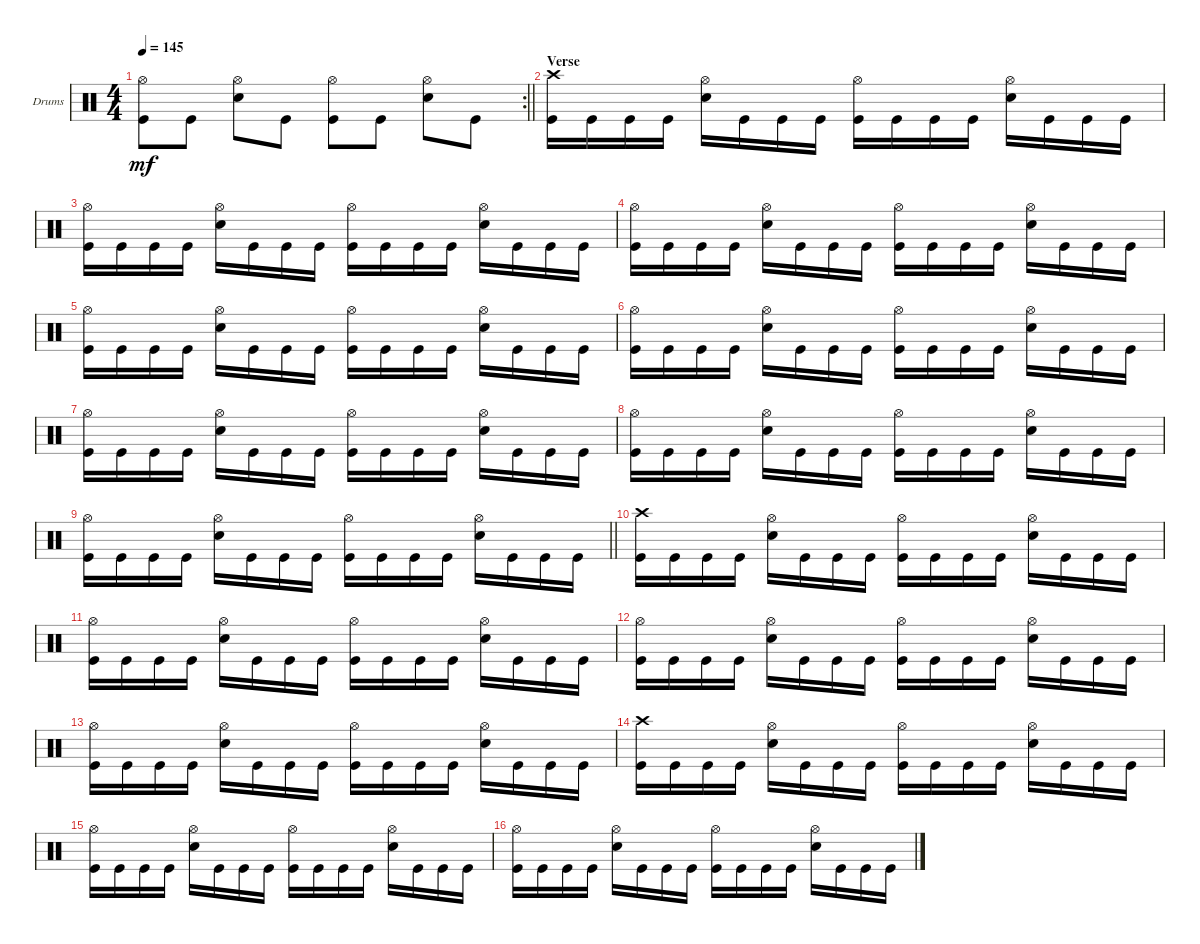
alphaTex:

\defaultSystemsLayout 4
\bracketExtendMode groupsimilarinstruments
\firstSystemTrackNameOrientation horizontal
\otherSystemsTrackNameOrientation horizontal
\track ("Drumkit" "Drums") {instrument percussion}
\staff {score}
\articulation defaults
\rc 2
\ts (4 4)
\tempo 145
\clef neutral
\barLineRight lightlight
\ks c
("Kick (hit)" "Hi-Hat (open)").8{dy mf} "Kick (hit)".8 ("Snare (hit) 2" "Hi-Hat (open)").8 "Kick (hit)".8 ("Kick (hit)" "Hi-Hat (open)").8 "Kick (hit)".8 ("Snare (hit) 2" "Hi-Hat (open)").8 "Kick (hit)".8 |
\section ("" "Verse")
("Kick (hit)" "Crash high (hit)").16 "Kick (hit)".16 "Kick (hit)".16 "Kick (hit)".16 ("Snare (hit) 2" "Hi-Hat (open)").16 "Kick (hit)".16 "Kick (hit)".16 "Kick (hit)".16 ("Kick (hit)" "Hi-Hat (open)").16 "Kick (hit)".16 "Kick (hit)".16 "Kick (hit)".16 ("Snare (hit) 2" "Hi-Hat (open)").16 "Kick (hit)".16 "Kick (hit)".16 "Kick (hit)".16 |
("Kick (hit)" "Hi-Hat (open)").16 "Kick (hit)".16 "Kick (hit)".16 "Kick (hit)".16 ("Snare (hit) 2" "Hi-Hat (open)").16 "Kick (hit)".16 "Kick (hit)".16 "Kick (hit)".16 ("Kick (hit)" "Hi-Hat (open)").16 "Kick (hit)".16 "Kick (hit)".16 "Kick (hit)".16 ("Snare (hit) 2" "Hi-Hat (open)").16 "Kick (hit)".16 "Kick (hit)".16 "Kick (hit)".16 |
("Kick (hit)" "Hi-Hat (open)").16 "Kick (hit)".16 "Kick (hit)".16 "Kick (hit)".16 ("Snare (hit) 2" "Hi-Hat (open)").16 "Kick (hit)".16 "Kick (hit)".16 "Kick (hit)".16 ("Kick (hit)" "Hi-Hat (open)").16 "Kick (hit)".16 "Kick (hit)".16 "Kick (hit)".16 ("Snare (hit) 2" "Hi-Hat (open)").16 "Kick (hit)".16 "Kick (hit)".16 "Kick (hit)".16 |
("Kick (hit)" "Hi-Hat (open)").16 "Kick (hit)".16 "Kick (hit)".16 "Kick (hit)".16 ("Snare (hit) 2" "Hi-Hat (open)").16 "Kick (hit)".16 "Kick (hit)".16 "Kick (hit)".16 ("Kick (hit)" "Hi-Hat (open)").16 "Kick (hit)".16 "Kick (hit)".16 "Kick (hit)".16 ("Snare (hit) 2" "Hi-Hat (open)").16 "Kick (hit)".16 "Kick (hit)".16 "Kick (hit)".16 |
("Kick (hit)" "Hi-Hat (open)").16 "Kick (hit)".16 "Kick (hit)".16 "Kick (hit)".16 ("Snare (hit) 2" "Hi-Hat (open)").16 "Kick (hit)".16 "Kick (hit)".16 "Kick (hit)".16 ("Kick (hit)" "Hi-Hat (open)").16 "Kick (hit)".16 "Kick (hit)".16 "Kick (hit)".16 ("Snare (hit) 2" "Hi-Hat (open)").16 "Kick (hit)".16 "Kick (hit)".16 "Kick (hit)".16 |
("Kick (hit)" "Hi-Hat (open)").16 "Kick (hit)".16 "Kick (hit)".16 "Kick (hit)".16 ("Snare (hit) 2" "Hi-Hat (open)").16 "Kick (hit)".16 "Kick (hit)".16 "Kick (hit)".16 ("Kick (hit)" "Hi-Hat (open)").16 "Kick (hit)".16 "Kick (hit)".16 "Kick (hit)".16 ("Snare (hit) 2" "Hi-Hat (open)").16 "Kick (hit)".16 "Kick (hit)".16 "Kick (hit)".16 |
("Kick (hit)" "Hi-Hat (open)").16 "Kick (hit)".16 "Kick (hit)".16 "Kick (hit)".16 ("Snare (hit) 2" "Hi-Hat (open)").16 "Kick (hit)".16 "Kick (hit)".16 "Kick (hit)".16 ("Kick (hit)" "Hi-Hat (open)").16 "Kick (hit)".16 "Kick (hit)".16 "Kick (hit)".16 ("Snare (hit) 2" "Hi-Hat (open)").16 "Kick (hit)".16 "Kick (hit)".16 "Kick (hit)".16 |
\barLineRight lightlight
("Kick (hit)" "Hi-Hat (open)").16 "Kick (hit)".16 "Kick (hit)".16 "Kick (hit)".16 ("Snare (hit) 2" "Hi-Hat (open)").16 "Kick (hit)".16 "Kick (hit)".16 "Kick (hit)".16 ("Kick (hit)" "Hi-Hat (open)").16 "Kick (hit)".16 "Kick (hit)".16 "Kick (hit)".16 ("Snare (hit) 2" "Hi-Hat (open)").16 "Kick (hit)".16 "Kick (hit)".16 "Kick (hit)".16 |
("Kick (hit)" "Crash high (hit)").16 "Kick (hit)".16 "Kick (hit)".16 "Kick (hit)".16 ("Snare (hit) 2" "Hi-Hat (open)").16 "Kick (hit)".16 "Kick (hit)".16 "Kick (hit)".16 ("Kick (hit)" "Hi-Hat (open)").16 "Kick (hit)".16 "Kick (hit)".16 "Kick (hit)".16 ("Snare (hit) 2" "Hi-Hat (open)").16 "Kick (hit)".16 "Kick (hit)".16 "Kick (hit)".16 |
("Kick (hit)" "Hi-Hat (open)").16 "Kick (hit)".16 "Kick (hit)".16 "Kick (hit)".16 ("Snare (hit) 2" "Hi-Hat (open)").16 "Kick (hit)".16 "Kick (hit)".16 "Kick (hit)".16 ("Kick (hit)" "Hi-Hat (open)").16 "Kick (hit)".16 "Kick (hit)".16 "Kick (hit)".16 ("Snare (hit) 2" "Hi-Hat (open)").16 "Kick (hit)".16 "Kick (hit)".16 "Kick (hit)".16 |
("Kick (hit)" "Hi-Hat (open)").16 "Kick (hit)".16 "Kick (hit)".16 "Kick (hit)".16 ("Snare (hit) 2" "Hi-Hat (open)").16 "Kick (hit)".16 "Kick (hit)".16 "Kick (hit)".16 ("Kick (hit)" "Hi-Hat (open)").16 "Kick (hit)".16 "Kick (hit)".16 "Kick (hit)".16 ("Snare (hit) 2" "Hi-Hat (open)").16 "Kick (hit)".16 "Kick (hit)".16 "Kick (hit)".16 |
("Kick (hit)" "Hi-Hat (open)").16 "Kick (hit)".16 "Kick (hit)".16 "Kick (hit)".16 ("Snare (hit) 2" "Hi-Hat (open)").16 "Kick (hit)".16 "Kick (hit)".16 "Kick (hit)".16 ("Kick (hit)" "Hi-Hat (open)").16 "Kick (hit)".16 "Kick (hit)".16 "Kick (hit)".16 ("Snare (hit) 2" "Hi-Hat (open)").16 "Kick (hit)".16 "Kick (hit)".16 "Kick (hit)".16 |
("Kick (hit)" "Crash high (hit)").16 "Kick (hit)".16 "Kick (hit)".16 "Kick (hit)".16 ("Snare (hit) 2" "Hi-Hat (open)").16 "Kick (hit)".16 "Kick (hit)".16 "Kick (hit)".16 ("Kick (hit)" "Hi-Hat (open)").16 "Kick (hit)".16 "Kick (hit)".16 "Kick (hit)".16 ("Snare (hit) 2" "Hi-Hat (open)").16 "Kick (hit)".16 "Kick (hit)".16 "Kick (hit)".16 |
("Kick (hit)" "Hi-Hat (open)").16 "Kick (hit)".16 "Kick (hit)".16 "Kick (hit)".16 ("Snare (hit) 2" "Hi-Hat (open)").16 "Kick (hit)".16 "Kick (hit)".16 "Kick (hit)".16 ("Kick (hit)" "Hi-Hat (open)").16 "Kick (hit)".16 "Kick (hit)".16 "Kick (hit)".16 ("Snare (hit) 2" "Hi-Hat (open)").16 "Kick (hit)".16 "Kick (hit)".16 "Kick (hit)".16 |
("Kick (hit)" "Hi-Hat (open)").16 "Kick (hit)".16 "Kick (hit)".16 "Kick (hit)".16 ("Snare (hit) 2" "Hi-Hat (open)").16 "Kick (hit)".16 "Kick (hit)".16 "Kick (hit)".16 ("Kick (hit)" "Hi-Hat (open)").16 "Kick (hit)".16 "Kick (hit)".16 "Kick (hit)".16 ("Snare (hit) 2" "Hi-Hat (open)").16 "Kick (hit)".16 "Kick (hit)".16 "Kick (hit)".16
